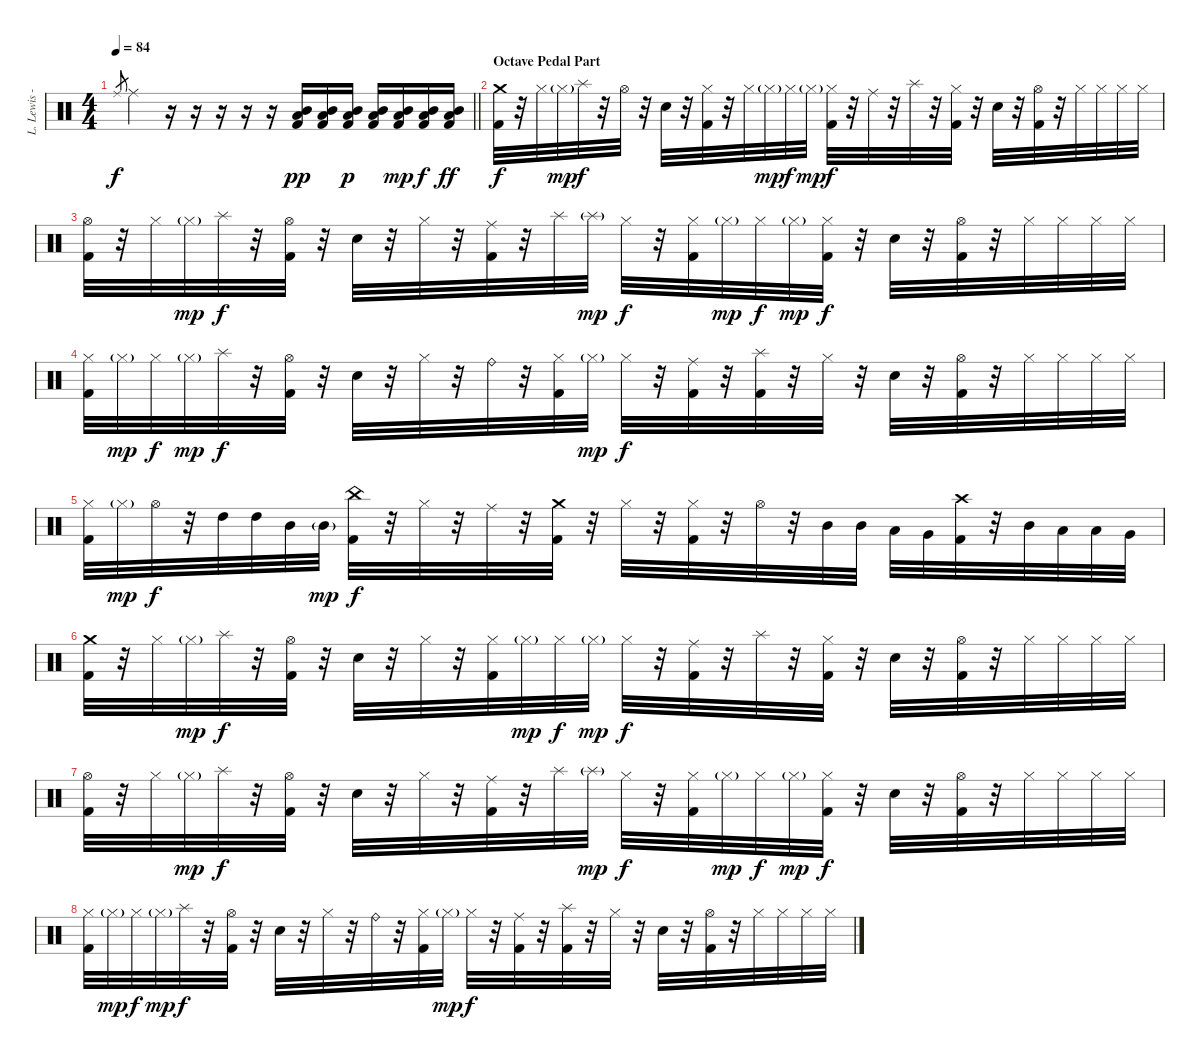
\track ("L. Lewis - Drums" "L. Lewis -") {instrument percussion}
\staff {score}
\articulation defaults
\ts (4 4)
\tempo 84
\clef neutral
\barLineRight lightlight
\ks c "Ride (middle)".8{gr dy f} "Ride (middle)".4
r.16 r.16 r.16 r.16 r.16 ("Mid Tom (hit)" "Low Tom (hit)" "Kick (hit) 2").16{dy pp} ("Mid Tom (hit)" "Low Tom (hit)" "Kick (hit) 2").16 ("Mid Tom (hit)" "Low Tom (hit)" "Kick (hit) 2").16{dy p} ("Mid Tom (hit)" "Low Tom (hit)" "Kick (hit) 2").16 ("Mid Tom (hit)" "Low Tom (hit)" "Kick (hit) 2").16{dy mp} ("Mid Tom (hit)" "Low Tom (hit)" "Kick (hit) 2").16{dy f} ("Mid Tom (hit)" "Low Tom (hit)" "Kick (hit) 2").16{dy ff} |
\section ("" "Octave Pedal Part")
("Crash medium (hit)" "Kick (hit) 2").32{dy f} r.32 "Hi-Hat (closed)".32 "Hi-Hat (closed)"{g}.32{dy mp} "Splash (hit)".32{dy f} r.32 "Hi-Hat (open)".32 r.32 "Electric Snare (hit)".32 r.32 ("Hi-Hat (closed)" "Kick (hit) 2").32 r.32 "Hi-Hat (closed)".32 "Hi-Hat (closed)"{g}.32{dy mp} "Hi-Hat (closed)".32{dy f} "Hi-Hat (closed)"{g}.32{dy mp} ("Hi-Hat (closed)" "Kick (hit) 2").32{dy f} r.32 "Ride (middle)".32 r.32 "Splash (hit)".32 r.32 ("Hi-Hat (closed)" "Kick (hit) 2").32 r.32 "Electric Snare (hit)".32 r.32 ("Hi-Hat (open)" "Kick (hit) 2").32 r.32 "Hi-Hat (closed)".32 "Hi-Hat (closed)".32 "Hi-Hat (closed)".32 "Hi-Hat (closed)".32 |
("Hi-Hat (open)" "Kick (hit) 2").32 r.32 "Hi-Hat (closed)".32 "Hi-Hat (closed)"{g}.32{dy mp} "Splash (hit)".32{dy f} r.32 ("Hi-Hat (open)" "Kick (hit) 2").32 r.32 "Electric Snare (hit)".32 r.32 "Hi-Hat (closed)".32 r.32 ("Ride (middle)" "Kick (hit) 2").32 r.32 "Splash (hit)".32 "Splash (hit)"{g}.32{dy mp} "Hi-Hat (closed)".32{dy f} r.32 ("Hi-Hat (closed)" "Kick (hit) 2").32 "Hi-Hat (closed)"{g}.32{dy mp} "Hi-Hat (closed)".32{dy f} "Hi-Hat (closed)"{g}.32{dy mp} ("Hi-Hat (closed)" "Kick (hit) 2").32{dy f} r.32 "Electric Snare (hit)".32 r.32 ("Hi-Hat (open)" "Kick (hit) 2").32 r.32 "Hi-Hat (closed)".32 "Hi-Hat (closed)".32 "Hi-Hat (closed)".32 "Hi-Hat (closed)".32 |
("Hi-Hat (closed)" "Kick (hit) 2").32 "Hi-Hat (closed)"{g}.32{dy mp} "Hi-Hat (closed)".32{dy f} "Hi-Hat (closed)"{g}.32{dy mp} "Splash (hit)".32{dy f} r.32 ("Hi-Hat (open)" "Kick (hit) 2").32 r.32 "Electric Snare (hit)".32 r.32 "Hi-Hat (closed)".32 r.32 "Ride (bell)".32 r.32 ("Hi-Hat (closed)" "Kick (hit) 2").32 "Hi-Hat (closed)"{g}.32{dy mp} "Hi-Hat (closed)".32{dy f} r.32 ("Ride (middle)" "Kick (hit) 2").32 r.32 ("Splash (hit)" "Kick (hit) 2").32 r.32 "Hi-Hat (closed)".32 r.32 "Electric Snare (hit)".32 r.32 ("Hi-Hat (open)" "Kick (hit) 2").32 r.32 "Hi-Hat (closed)".32 "Hi-Hat (closed)".32 "Hi-Hat (closed)".32 "Hi-Hat (closed)".32 |
("Hi-Hat (closed)" "Kick (hit) 2").32 "Hi-Hat (closed)"{g}.32{dy mp} "Hi-Hat (open)".32{dy f} r.32 "High Tom (hit)".32 "High Tom (hit)".32 "Mid Tom (hit)".32 "Mid Tom (hit)"{g}.32{dy mp} ("China (hit)" "Kick (hit) 2").32{dy f} r.32 "Hi-Hat (closed)".32 r.32 "Ride (middle)".32 r.32 ("Crash medium (hit)" "Kick (hit) 2").32 r.32 "Hi-Hat (closed)".32 r.32 ("Hi-Hat (closed)" "Kick (hit) 2").32 r.32 "Hi-Hat (open)".32 r.32 "Mid Tom (hit)".32 "Mid Tom (hit)".32 "Low Tom (hit)".32 "Very Low Tom (hit)".32 ("Crash high (hit)" "Kick (hit) 2").32 r.32 "Mid Tom (hit)".32 "Low Tom (hit)".32 "Low Tom (hit)".32 "Very Low Tom (hit)".32 |
("Crash medium (hit)" "Kick (hit) 2").32 r.32 "Hi-Hat (closed)".32 "Hi-Hat (closed)"{g}.32{dy mp} "Splash (hit)".32{dy f} r.32 ("Hi-Hat (open)" "Kick (hit) 2").32 r.32 "Electric Snare (hit)".32 r.32 "Hi-Hat (closed)".32 r.32 ("Hi-Hat (closed)" "Kick (hit) 2").32 "Hi-Hat (closed)"{g}.32{dy mp} "Hi-Hat (closed)".32{dy f} "Hi-Hat (closed)"{g}.32{dy mp} "Hi-Hat (closed)".32{dy f} r.32 ("Ride (middle)" "Kick (hit) 2").32 r.32 "Splash (hit)".32 r.32 ("Hi-Hat (closed)" "Kick (hit) 2").32 r.32 "Electric Snare (hit)".32 r.32 ("Hi-Hat (open)" "Kick (hit) 2").32 r.32 "Hi-Hat (closed)".32 "Hi-Hat (closed)".32 "Hi-Hat (closed)".32 "Hi-Hat (closed)".32 |
("Hi-Hat (open)" "Kick (hit) 2").32 r.32 "Hi-Hat (closed)".32 "Hi-Hat (closed)"{g}.32{dy mp} "Splash (hit)".32{dy f} r.32 ("Hi-Hat (open)" "Kick (hit) 2").32 r.32 "Electric Snare (hit)".32 r.32 "Hi-Hat (closed)".32 r.32 ("Ride (middle)" "Kick (hit) 2").32 r.32 "Splash (hit)".32 "Splash (hit)"{g}.32{dy mp} "Hi-Hat (closed)".32{dy f} r.32 ("Hi-Hat (closed)" "Kick (hit) 2").32 "Hi-Hat (closed)"{g}.32{dy mp} "Hi-Hat (closed)".32{dy f} "Hi-Hat (closed)"{g}.32{dy mp} ("Hi-Hat (closed)" "Kick (hit) 2").32{dy f} r.32 "Electric Snare (hit)".32 r.32 ("Hi-Hat (open)" "Kick (hit) 2").32 r.32 "Hi-Hat (closed)".32 "Hi-Hat (closed)".32 "Hi-Hat (closed)".32 "Hi-Hat (closed)".32 |
("Hi-Hat (closed)" "Kick (hit) 2").32 "Hi-Hat (closed)"{g}.32{dy mp} "Hi-Hat (closed)".32{dy f} "Hi-Hat (closed)"{g}.32{dy mp} "Splash (hit)".32{dy f} r.32 ("Hi-Hat (open)" "Kick (hit) 2").32 r.32 "Electric Snare (hit)".32 r.32 "Hi-Hat (closed)".32 r.32 "Ride (bell)".32 r.32 ("Hi-Hat (closed)" "Kick (hit) 2").32 "Hi-Hat (closed)"{g}.32{dy mp} "Hi-Hat (closed)".32{dy f} r.32 ("Ride (middle)" "Kick (hit) 2").32 r.32 ("Splash (hit)" "Kick (hit) 2").32 r.32 "Hi-Hat (closed)".32 r.32 "Electric Snare (hit)".32 r.32 ("Hi-Hat (open)" "Kick (hit) 2").32 r.32 "Hi-Hat (closed)".32 "Hi-Hat (closed)".32 "Hi-Hat (closed)".32 "Hi-Hat (closed)".32
